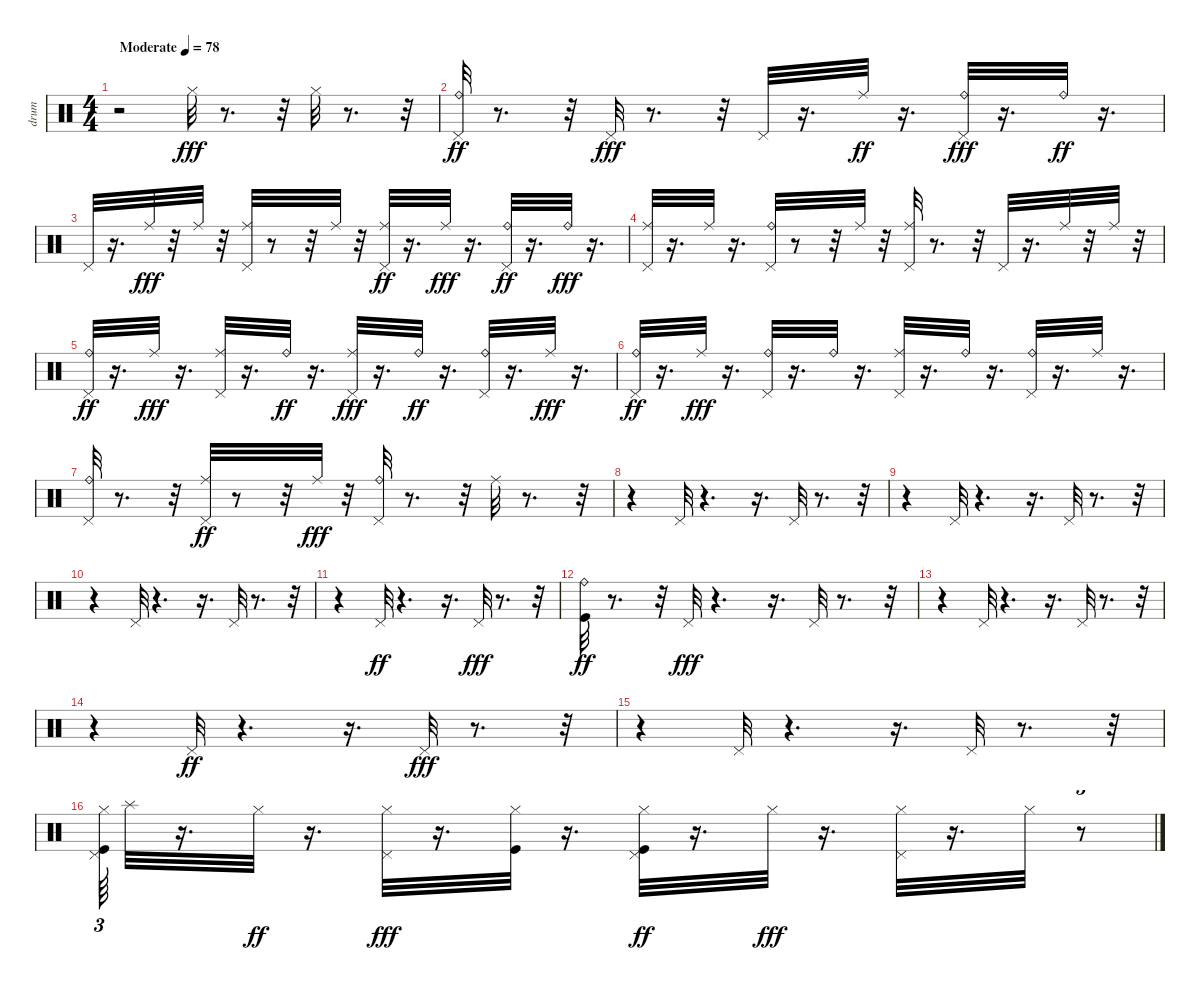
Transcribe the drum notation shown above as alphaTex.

\track ("drum" "drum") {instrument percussion}
\staff {score}
\articulation defaults
\ts (4 4)
\tempo (78 "Moderate")
\clef neutral
\ks c
r.2{dy fff} "Hi-Hat (closed)".32 r.8{d} r.32 "Hi-Hat (closed)".32 r.8{d} r.32 |
("Ride (bell)" "Pedal Hi-Hat (hit)").32{dy ff} r.8{d} r.32 "Pedal Hi-Hat (hit)".32{dy fff} r.8{d} r.32 "Pedal Hi-Hat (hit)".32 r.16{d} "Ride (middle)".32{dy ff} r.16{d} ("Ride (bell)" "Pedal Hi-Hat (hit)").32{dy fff} r.16{d} "Ride (bell)".32{dy ff} r.16{d} |
"Pedal Hi-Hat (hit)".32 r.16{d} "Ride (middle)".32{dy fff} r.32 "Ride (middle)".32 r.32 ("Ride (middle)" "Pedal Hi-Hat (hit)").32 r.8 r.32 "Ride (middle)".32 r.32 ("Ride (middle)" "Pedal Hi-Hat (hit)").32{dy ff} r.16{d} "Ride (middle)".32{dy fff} r.16{d} ("Ride (bell)" "Pedal Hi-Hat (hit)").32{dy ff} r.16{d} "Ride (bell)".32{dy fff} r.16{d} |
("Ride (middle)" "Pedal Hi-Hat (hit)").32 r.16{d} "Ride (middle)".32 r.16{d} ("Ride (bell)" "Pedal Hi-Hat (hit)").32 r.8 r.32 "Ride (middle)".32 r.32 ("Ride (middle)" "Pedal Hi-Hat (hit)").32 r.8{d} r.32 "Pedal Hi-Hat (hit)".32 r.16{d} "Ride (middle)".32 r.32 "Ride (middle)".32 r.32 |
("Ride (bell)" "Pedal Hi-Hat (hit)").32{dy ff} r.16{d} "Ride (middle)".32{dy fff} r.16{d} ("Ride (middle)" "Pedal Hi-Hat (hit)").32 r.16{d} "Ride (bell)".32{dy ff} r.16{d} ("Ride (middle)" "Pedal Hi-Hat (hit)").32{dy fff} r.16{d} "Ride (bell)".32{dy ff} r.16{d} ("Ride (bell)" "Pedal Hi-Hat (hit)").32 r.16{d} "Ride (middle)".32{dy fff} r.16{d} |
("Ride (bell)" "Pedal Hi-Hat (hit)").32{dy ff} r.16{d} "Ride (middle)".32{dy fff} r.16{d} ("Ride (bell)" "Pedal Hi-Hat (hit)").32 r.16{d} "Ride (bell)".32 r.16{d} ("Ride (middle)" "Pedal Hi-Hat (hit)").32 r.16{d} "Ride (bell)".32 r.16{d} ("Ride (bell)" "Pedal Hi-Hat (hit)").32 r.16{d} "Ride (middle)".32 r.16{d} |
("Ride (bell)" "Pedal Hi-Hat (hit)").32 r.8{d} r.32 ("Ride (middle)" "Pedal Hi-Hat (hit)").32{dy ff} r.8 r.32 "Ride (middle)".32{dy fff} r.32 ("Ride (bell)" "Pedal Hi-Hat (hit)").32 r.8{d} r.32 "Ride (middle)".32 r.8{d} r.32 |
r.4 "Pedal Hi-Hat (hit)".32 r.4{d} r.16{d} "Pedal Hi-Hat (hit)".32 r.8{d} r.32 |
r.4 "Pedal Hi-Hat (hit)".32 r.4{d} r.16{d} "Pedal Hi-Hat (hit)".32 r.8{d} r.32 |
r.4 "Pedal Hi-Hat (hit)".32 r.4{d} r.16{d} "Pedal Hi-Hat (hit)".32 r.8{d} r.32 |
r.4 "Pedal Hi-Hat (hit)".32{dy ff} r.4{d} r.16{d} "Pedal Hi-Hat (hit)".32{dy fff} r.8{d} r.32 |
("Ride (bell)" "Kick (hit)").32{dy ff} r.8{d} r.32 "Pedal Hi-Hat (hit)".32{dy fff} r.4{d} r.16{d} "Pedal Hi-Hat (hit)".32 r.8{d} r.32 |
r.4 "Pedal Hi-Hat (hit)".32 r.4{d} r.16{d} "Pedal Hi-Hat (hit)".32 r.8{d} r.32 |
r.4 "Pedal Hi-Hat (hit)".32{dy ff} r.4{d} r.16{d} "Pedal Hi-Hat (hit)".32{dy fff} r.8{d} r.32 |
r.4 "Pedal Hi-Hat (hit)".32 r.4{d} r.16{d} "Pedal Hi-Hat (hit)".32 r.8{d} r.32 |
("Pedal Hi-Hat (hit)" "Kick (hit)" "Hi-Hat (closed)").64{tu (3 2)} "Splash (hit)".32 r.16{d} "Hi-Hat (closed)".32{dy ff} r.16{d} ("Pedal Hi-Hat (hit)" "Hi-Hat (closed)").32{dy fff} r.16{d} ("Kick (hit)" "Hi-Hat (closed)").32 r.16{d} ("Pedal Hi-Hat (hit)" "Kick (hit)" "Hi-Hat (closed)").32{dy ff} r.16{d} "Hi-Hat (closed)".32{dy fff} r.16{d} ("Pedal Hi-Hat (hit)" "Hi-Hat (closed)").32 r.16{d} "Hi-Hat (closed)".32 r.8{tu (3 2)}
